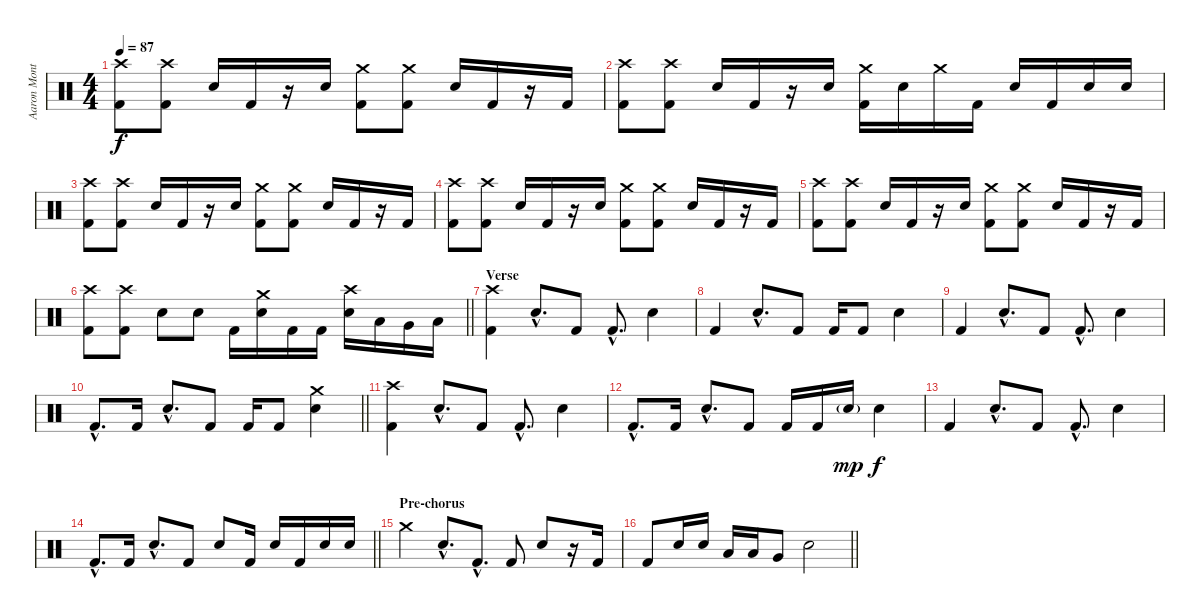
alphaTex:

\track ("Aaron Montgomery (Drums)" "Aaron Mont") {instrument percussion}
\staff {score}
\articulation defaults
\ts (4 4)
\tempo 87
\clef neutral
\ks c
("Crash high (hit)" "Kick (hit) 2").8{dy f} ("Crash high (hit)" "Kick (hit) 2").8 "Electric Snare (hit)".16 "Kick (hit) 2".16 r.16 "Electric Snare (hit)".16 ("Crash medium (hit)" "Kick (hit) 2").8 ("Crash medium (hit)" "Kick (hit) 2").8 "Electric Snare (hit)".16 "Kick (hit) 2".16 r.16 "Kick (hit) 2".16 |
("Crash high (hit)" "Kick (hit) 2").8 ("Crash high (hit)" "Kick (hit) 2").8 "Electric Snare (hit)".16 "Kick (hit) 2".16 r.16 "Electric Snare (hit)".16 ("Crash medium (hit)" "Kick (hit) 2").16 "Electric Snare (hit)".16 "Crash medium (hit)".16 "Kick (hit) 2".16 "Electric Snare (hit)".16 "Kick (hit) 2".16 "Electric Snare (hit)".16 "Electric Snare (hit)".16 |
("Crash high (hit)" "Kick (hit) 2").8 ("Crash high (hit)" "Kick (hit) 2").8 "Electric Snare (hit)".16 "Kick (hit) 2".16 r.16 "Electric Snare (hit)".16 ("Crash medium (hit)" "Kick (hit) 2").8 ("Crash medium (hit)" "Kick (hit) 2").8 "Electric Snare (hit)".16 "Kick (hit) 2".16 r.16 "Kick (hit) 2".16 |
("Crash high (hit)" "Kick (hit) 2").8 ("Crash high (hit)" "Kick (hit) 2").8 "Electric Snare (hit)".16 "Kick (hit) 2".16 r.16 "Electric Snare (hit)".16 ("Crash medium (hit)" "Kick (hit) 2").8 ("Crash medium (hit)" "Kick (hit) 2").8 "Electric Snare (hit)".16 "Kick (hit) 2".16 r.16 "Kick (hit) 2".16 |
("Crash high (hit)" "Kick (hit) 2").8 ("Crash high (hit)" "Kick (hit) 2").8 "Electric Snare (hit)".16 "Kick (hit) 2".16 r.16 "Electric Snare (hit)".16 ("Crash medium (hit)" "Kick (hit) 2").8 ("Crash medium (hit)" "Kick (hit) 2").8 "Electric Snare (hit)".16 "Kick (hit) 2".16 r.16 "Kick (hit) 2".16 |
\barLineRight lightlight
("Crash high (hit)" "Kick (hit) 2").8 ("Crash high (hit)" "Kick (hit) 2").8 "Electric Snare (hit)".8 "Electric Snare (hit)".8 "Kick (hit) 2".16 ("Crash medium (hit)" "Electric Snare (hit)").16 "Kick (hit) 2".16 "Kick (hit) 2".16 ("Crash high (hit)" "Electric Snare (hit)").16 "Low Tom (hit)".16 "Very Low Tom (hit)".16 "Low Floor Tom (hit)".16 |
\section ("" "Verse")
("Crash high (hit)" "Kick (hit) 2").4 "Electric Snare (hit)"{hac}.8{d} "Kick (hit) 2".8 "Kick (hit) 2"{hac}.8{d} "Electric Snare (hit)".4 |
"Kick (hit) 2".4 "Electric Snare (hit)"{hac}.8{d} "Kick (hit) 2".8 "Kick (hit) 2".16 "Kick (hit) 2".8 "Electric Snare (hit)".4 |
"Kick (hit) 2".4 "Electric Snare (hit)"{hac}.8{d} "Kick (hit) 2".8 "Kick (hit) 2"{hac}.8{d} "Electric Snare (hit)".4 |
\barLineRight lightlight "Kick (hit) 2"{hac}.8{d} "Kick (hit) 2".16 "Electric Snare (hit)"{hac}.8{d} "Kick (hit) 2".8 "Kick (hit) 2".16 "Kick (hit) 2".8
("Crash medium (hit)" "Electric Snare (hit)").4 |
("Crash high (hit)" "Kick (hit) 2").4 "Electric Snare (hit)"{hac}.8{d} "Kick (hit) 2".8 "Kick (hit) 2"{hac}.8{d} "Electric Snare (hit)".4 |
"Kick (hit) 2"{hac}.8{d} "Kick (hit) 2".16 "Electric Snare (hit)"{hac}.8{d} "Kick (hit) 2".8 "Kick (hit) 2".16 "Kick (hit) 2".16 "Electric Snare (hit)"{g}.16{dy mp} "Electric Snare (hit)".4{dy f} |
"Kick (hit) 2".4 "Electric Snare (hit)"{hac}.8{d} "Kick (hit) 2".8 "Kick (hit) 2"{hac}.8{d} "Electric Snare (hit)".4 |
\barLineRight lightlight "Kick (hit) 2"{hac}.8{d} "Kick (hit) 2".16 "Electric Snare (hit)"{hac}.8{d} "Kick (hit) 2".8 "Electric Snare (hit)".8 "Kick (hit) 2".16 "Electric Snare (hit)".16 "Kick (hit) 2".16 "Electric Snare (hit)".16 "Electric Snare (hit)".16
|
\section ("" "Pre-chorus")
"Crash medium (hit)".4 "Electric Snare (hit)"{hac}.8{d} "Kick (hit) 2"{hac}.8{d} "Kick (hit) 2".8 "Electric Snare (hit)".8 r.16 "Kick (hit) 2".16 |
\barLineRight lightlight "Kick (hit) 2".8 "Electric Snare (hit)".16 "Electric Snare (hit)".16 "Low Tom (hit)".16 "Low Tom (hit)".16 "Very Low Tom (hit)".8 "Electric Snare (hit)".2
